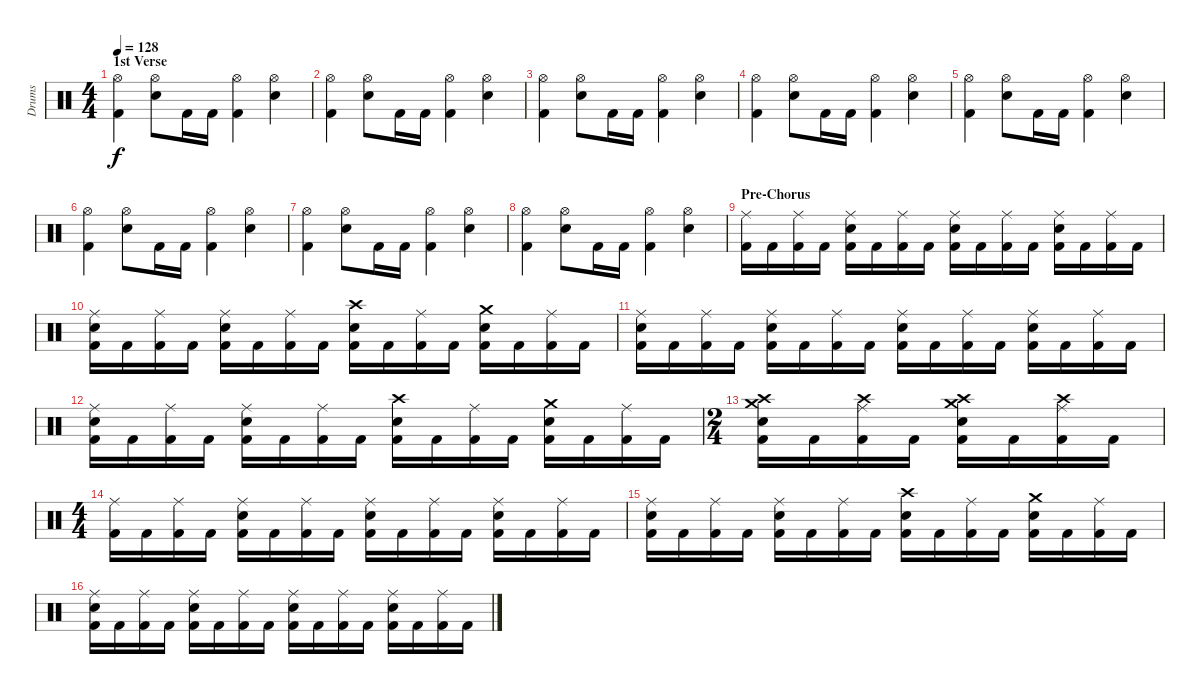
\track ("Drums" "Drums") {instrument percussion}
\staff {score}
\articulation defaults
\ts (4 4)
\section ("" "1st Verse")
\tempo 128
\clef neutral
\ks c
("Hi-Hat (open)" "Kick (hit) 2").4{dy f} ("Hi-Hat (open)" "Snare (hit) 2").8 "Kick (hit) 2".16 "Kick (hit) 2".16 ("Hi-Hat (open)" "Kick (hit) 2").4 ("Hi-Hat (open)" "Snare (hit) 2").4 |
("Hi-Hat (open)" "Kick (hit) 2").4 ("Hi-Hat (open)" "Snare (hit) 2").8 "Kick (hit) 2".16 "Kick (hit) 2".16 ("Hi-Hat (open)" "Kick (hit) 2").4 ("Hi-Hat (open)" "Snare (hit) 2").4 |
("Hi-Hat (open)" "Kick (hit) 2").4 ("Hi-Hat (open)" "Snare (hit) 2").8 "Kick (hit) 2".16 "Kick (hit) 2".16 ("Hi-Hat (open)" "Kick (hit) 2").4 ("Hi-Hat (open)" "Snare (hit) 2").4 |
("Hi-Hat (open)" "Kick (hit) 2").4 ("Hi-Hat (open)" "Snare (hit) 2").8 "Kick (hit) 2".16 "Kick (hit) 2".16 ("Hi-Hat (open)" "Kick (hit) 2").4 ("Hi-Hat (open)" "Snare (hit) 2").4 |
("Hi-Hat (open)" "Kick (hit) 2").4 ("Hi-Hat (open)" "Snare (hit) 2").8 "Kick (hit) 2".16 "Kick (hit) 2".16 ("Hi-Hat (open)" "Kick (hit) 2").4 ("Hi-Hat (open)" "Snare (hit) 2").4 |
("Hi-Hat (open)" "Kick (hit) 2").4 ("Hi-Hat (open)" "Snare (hit) 2").8 "Kick (hit) 2".16 "Kick (hit) 2".16 ("Hi-Hat (open)" "Kick (hit) 2").4 ("Hi-Hat (open)" "Snare (hit) 2").4 |
("Hi-Hat (open)" "Kick (hit) 2").4 ("Hi-Hat (open)" "Snare (hit) 2").8 "Kick (hit) 2".16 "Kick (hit) 2".16 ("Hi-Hat (open)" "Kick (hit) 2").4 ("Hi-Hat (open)" "Snare (hit) 2").4 |
("Hi-Hat (open)" "Kick (hit) 2").4 ("Hi-Hat (open)" "Snare (hit) 2").8 "Kick (hit) 2".16 "Kick (hit) 2".16 ("Hi-Hat (open)" "Kick (hit) 2").4 ("Hi-Hat (open)" "Snare (hit) 2").4 |
\section ("" "Pre-Chorus")
("Ride (middle)" "Kick (hit) 2").16 "Kick (hit) 2".16 ("Ride (middle)" "Kick (hit) 2").16 "Kick (hit) 2".16 ("Ride (middle)" "Snare (hit) 2" "Kick (hit) 2").16 "Kick (hit) 2".16 ("Ride (middle)" "Kick (hit) 2").16 "Kick (hit) 2".16 ("Ride (middle)" "Snare (hit) 2" "Kick (hit) 2").16 "Kick (hit) 2".16 ("Ride (middle)" "Kick (hit) 2").16 "Kick (hit) 2".16 ("Ride (middle)" "Snare (hit) 2" "Kick (hit) 2").16 "Kick (hit) 2".16 ("Ride (middle)" "Kick (hit) 2").16 "Kick (hit) 2".16 |
("Ride (middle)" "Snare (hit) 2" "Kick (hit) 2").16 "Kick (hit) 2".16 ("Ride (middle)" "Kick (hit) 2").16 "Kick (hit) 2".16 ("Ride (middle)" "Snare (hit) 2" "Kick (hit) 2").16 "Kick (hit) 2".16 ("Ride (middle)" "Kick (hit) 2").16 "Kick (hit) 2".16 ("Crash high (hit)" "Snare (hit) 2" "Kick (hit) 2").16 "Kick (hit) 2".16 ("Ride (middle)" "Kick (hit) 2").16 "Kick (hit) 2".16 ("Crash medium (hit)" "Snare (hit) 2" "Kick (hit) 2").16 "Kick (hit) 2".16 ("Ride (middle)" "Kick (hit) 2").16 "Kick (hit) 2".16 |
("Ride (middle)" "Snare (hit) 2" "Kick (hit) 2").16 "Kick (hit) 2".16 ("Ride (middle)" "Kick (hit) 2").16 "Kick (hit) 2".16 ("Ride (middle)" "Snare (hit) 2" "Kick (hit) 2").16 "Kick (hit) 2".16 ("Ride (middle)" "Kick (hit) 2").16 "Kick (hit) 2".16 ("Ride (middle)" "Snare (hit) 2" "Kick (hit) 2").16 "Kick (hit) 2".16 ("Ride (middle)" "Kick (hit) 2").16 "Kick (hit) 2".16 ("Ride (middle)" "Snare (hit) 2" "Kick (hit) 2").16 "Kick (hit) 2".16 ("Ride (middle)" "Kick (hit) 2").16 "Kick (hit) 2".16 |
("Ride (middle)" "Snare (hit) 2" "Kick (hit) 2").16 "Kick (hit) 2".16 ("Ride (middle)" "Kick (hit) 2").16 "Kick (hit) 2".16 ("Ride (middle)" "Snare (hit) 2" "Kick (hit) 2").16 "Kick (hit) 2".16 ("Ride (middle)" "Kick (hit) 2").16 "Kick (hit) 2".16 ("Crash high (hit)" "Snare (hit) 2" "Kick (hit) 2").16 "Kick (hit) 2".16 ("Ride (middle)" "Kick (hit) 2").16 "Kick (hit) 2".16 ("Crash medium (hit)" "Snare (hit) 2" "Kick (hit) 2").16 "Kick (hit) 2".16 ("Ride (middle)" "Kick (hit) 2").16 "Kick (hit) 2".16 |
\ts (2 4)
("Crash high (hit)" "Crash medium (hit)" "Snare (hit) 2" "Kick (hit) 2").16 "Kick (hit) 2".16 ("Ride (middle)" "Crash high (hit)" "Kick (hit) 2").16 "Kick (hit) 2".16 ("Crash medium (hit)" "Crash high (hit)" "Snare (hit) 2" "Kick (hit) 2").16 "Kick (hit) 2".16 ("Ride (middle)" "Crash high (hit)" "Kick (hit) 2").16 "Kick (hit) 2".16 |
\ts (4 4)
("Ride (middle)" "Kick (hit) 2").16 "Kick (hit) 2".16 ("Ride (middle)" "Kick (hit) 2").16 "Kick (hit) 2".16 ("Ride (middle)" "Snare (hit) 2" "Kick (hit) 2").16 "Kick (hit) 2".16 ("Ride (middle)" "Kick (hit) 2").16 "Kick (hit) 2".16 ("Ride (middle)" "Snare (hit) 2" "Kick (hit) 2").16 "Kick (hit) 2".16 ("Ride (middle)" "Kick (hit) 2").16 "Kick (hit) 2".16 ("Ride (middle)" "Snare (hit) 2" "Kick (hit) 2").16 "Kick (hit) 2".16 ("Ride (middle)" "Kick (hit) 2").16 "Kick (hit) 2".16 |
("Ride (middle)" "Snare (hit) 2" "Kick (hit) 2").16 "Kick (hit) 2".16 ("Ride (middle)" "Kick (hit) 2").16 "Kick (hit) 2".16 ("Ride (middle)" "Snare (hit) 2" "Kick (hit) 2").16 "Kick (hit) 2".16 ("Ride (middle)" "Kick (hit) 2").16 "Kick (hit) 2".16 ("Crash high (hit)" "Snare (hit) 2" "Kick (hit) 2").16 "Kick (hit) 2".16 ("Ride (middle)" "Kick (hit) 2").16 "Kick (hit) 2".16 ("Crash medium (hit)" "Snare (hit) 2" "Kick (hit) 2").16 "Kick (hit) 2".16 ("Ride (middle)" "Kick (hit) 2").16 "Kick (hit) 2".16 |
("Ride (middle)" "Snare (hit) 2" "Kick (hit) 2").16 "Kick (hit) 2".16 ("Ride (middle)" "Kick (hit) 2").16 "Kick (hit) 2".16 ("Ride (middle)" "Snare (hit) 2" "Kick (hit) 2").16 "Kick (hit) 2".16 ("Ride (middle)" "Kick (hit) 2").16 "Kick (hit) 2".16 ("Ride (middle)" "Snare (hit) 2" "Kick (hit) 2").16 "Kick (hit) 2".16 ("Ride (middle)" "Kick (hit) 2").16 "Kick (hit) 2".16 ("Ride (middle)" "Snare (hit) 2" "Kick (hit) 2").16 "Kick (hit) 2".16 ("Ride (middle)" "Kick (hit) 2").16 "Kick (hit) 2".16
